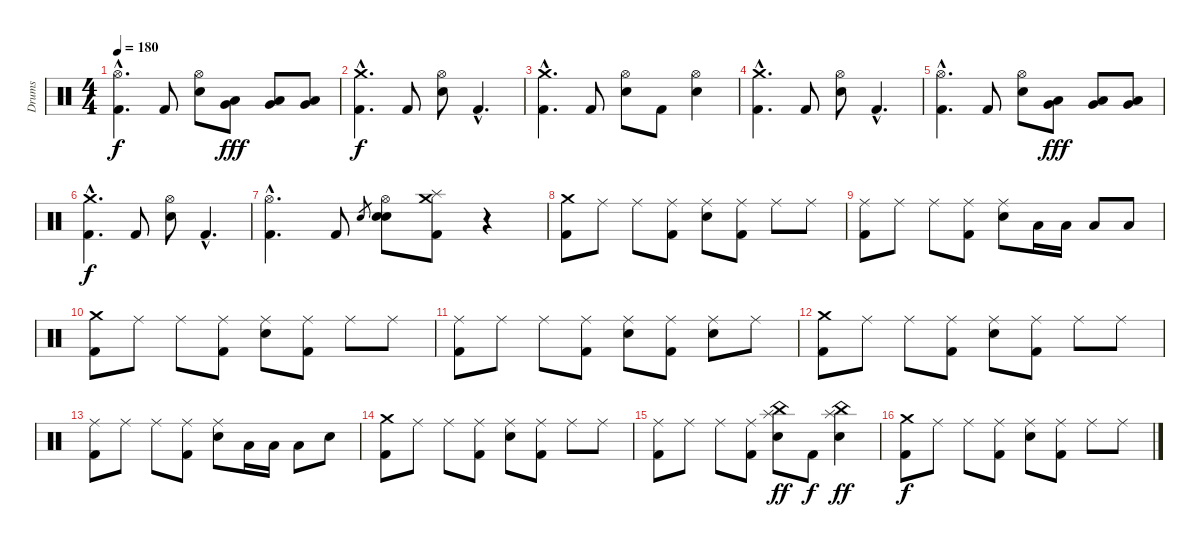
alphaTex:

\track ("Drums" "Drums") {instrument percussion}
\staff {score}
\articulation defaults
\ts (4 4)
\tempo 180
\clef neutral
\ks c
("Kick (hit) 2"{hac} "Hi-Hat (open)"{hac}).4{d dy f} "Kick (hit) 2".8 ("Electric Snare (hit)" "Hi-Hat (open)").8 ("Low Tom (hit)" "Very Low Tom (hit)").8{dy fff} ("Low Tom (hit)" "Very Low Tom (hit)").8 ("Low Tom (hit)" "Very Low Tom (hit)").8 |
("Kick (hit) 2"{hac} "Crash medium (hit)"{hac}).4{d dy f} "Kick (hit) 2".8 ("Electric Snare (hit)" "Hi-Hat (open)").8 "Kick (hit) 2"{hac}.4{d} |
("Kick (hit) 2"{hac} "Crash medium (hit)"{hac}).4{d} "Kick (hit) 2".8 ("Electric Snare (hit)" "Hi-Hat (open)").8 "Kick (hit) 2".8 ("Hi-Hat (open)" "Electric Snare (hit)").4 |
("Kick (hit) 2"{hac} "Crash medium (hit)"{hac}).4{d} "Kick (hit) 2".8 ("Electric Snare (hit)" "Hi-Hat (open)").8 "Kick (hit) 2"{hac}.4{d} |
("Kick (hit) 2"{hac} "Hi-Hat (open)"{hac}).4{d} "Kick (hit) 2".8 ("Electric Snare (hit)" "Hi-Hat (open)").8 ("Low Tom (hit)" "Very Low Tom (hit)").8{dy fff} ("Low Tom (hit)" "Very Low Tom (hit)").8 ("Low Tom (hit)" "Very Low Tom (hit)").8 |
("Kick (hit) 2"{hac} "Crash medium (hit)"{hac}).4{d dy f} "Kick (hit) 2".8 ("Electric Snare (hit)" "Hi-Hat (open)").8 "Kick (hit) 2"{hac}.4{d} |
("Kick (hit) 2"{hac} "Hi-Hat (open)"{hac}).4{d} "Kick (hit) 2".8 "Electric Snare (hit)".8{gr} ("Electric Snare (hit)" "Electric Snare (hit)" "Hi-Hat (open)").8 ("Kick (hit) 2" "Crash medium (hit)" "Splash (hit)").8 r.4 |
("Kick (hit) 2" "Crash medium (hit)").8 "Ride (middle)".8 "Ride (middle)".8 ("Kick (hit) 2" "Ride (middle)").8 ("Electric Snare (hit)" "Ride (middle)").8 ("Kick (hit) 2" "Ride (middle)").8 "Ride (middle)".8 "Ride (middle)".8 |
("Kick (hit) 2" "Ride (middle)").8 "Ride (middle)".8 "Ride (middle)".8 ("Kick (hit) 2" "Ride (middle)").8 ("Electric Snare (hit)" "Ride (middle)").8 "Low Tom (hit)".16 "Low Tom (hit)".16 "Low Tom (hit)".8 "Low Tom (hit)".8 |
("Kick (hit) 2" "Crash medium (hit)").8 "Ride (middle)".8 "Ride (middle)".8 ("Kick (hit) 2" "Ride (middle)").8 ("Electric Snare (hit)" "Ride (middle)").8 ("Kick (hit) 2" "Ride (middle)").8 "Ride (middle)".8 "Ride (middle)".8 |
("Kick (hit) 2" "Ride (middle)").8 "Ride (middle)".8 "Ride (middle)".8 ("Kick (hit) 2" "Ride (middle)").8 ("Electric Snare (hit)" "Ride (middle)").8 ("Kick (hit) 2" "Ride (middle)").8 ("Electric Snare (hit)" "Ride (middle)").8 "Ride (middle)".8 |
("Kick (hit) 2" "Crash medium (hit)").8 "Ride (middle)".8 "Ride (middle)".8 ("Kick (hit) 2" "Ride (middle)").8 ("Electric Snare (hit)" "Ride (middle)").8 ("Kick (hit) 2" "Ride (middle)").8 "Ride (middle)".8 "Ride (middle)".8 |
("Kick (hit) 2" "Ride (middle)").8 "Ride (middle)".8 "Ride (middle)".8 ("Kick (hit) 2" "Ride (middle)").8 ("Electric Snare (hit)" "Ride (middle)").8 "Low Tom (hit)".16 "Low Tom (hit)".16 "Low Tom (hit)".8 "Electric Snare (hit)".8 |
("Kick (hit) 2" "Crash medium (hit)").8 "Ride (middle)".8 "Ride (middle)".8 ("Kick (hit) 2" "Ride (middle)").8 ("Electric Snare (hit)" "Ride (middle)").8 ("Kick (hit) 2" "Ride (middle)").8 "Ride (middle)".8 "Ride (middle)".8 |
("Kick (hit) 2" "Ride (middle)").8 "Ride (middle)".8 "Ride (middle)".8 ("Kick (hit) 2" "Ride (middle)").8 ("China (hit)" "Electric Snare (hit)" "Splash (hit)").8{dy ff} "Kick (hit) 2".8{dy f} ("China (hit)" "Electric Snare (hit)" "Splash (hit)").4{dy ff} |
("Kick (hit) 2" "Crash medium (hit)").8{dy f} "Ride (middle)".8 "Ride (middle)".8 ("Kick (hit) 2" "Ride (middle)").8 ("Electric Snare (hit)" "Ride (middle)").8 ("Kick (hit) 2" "Ride (middle)").8 "Ride (middle)".8 "Ride (middle)".8
